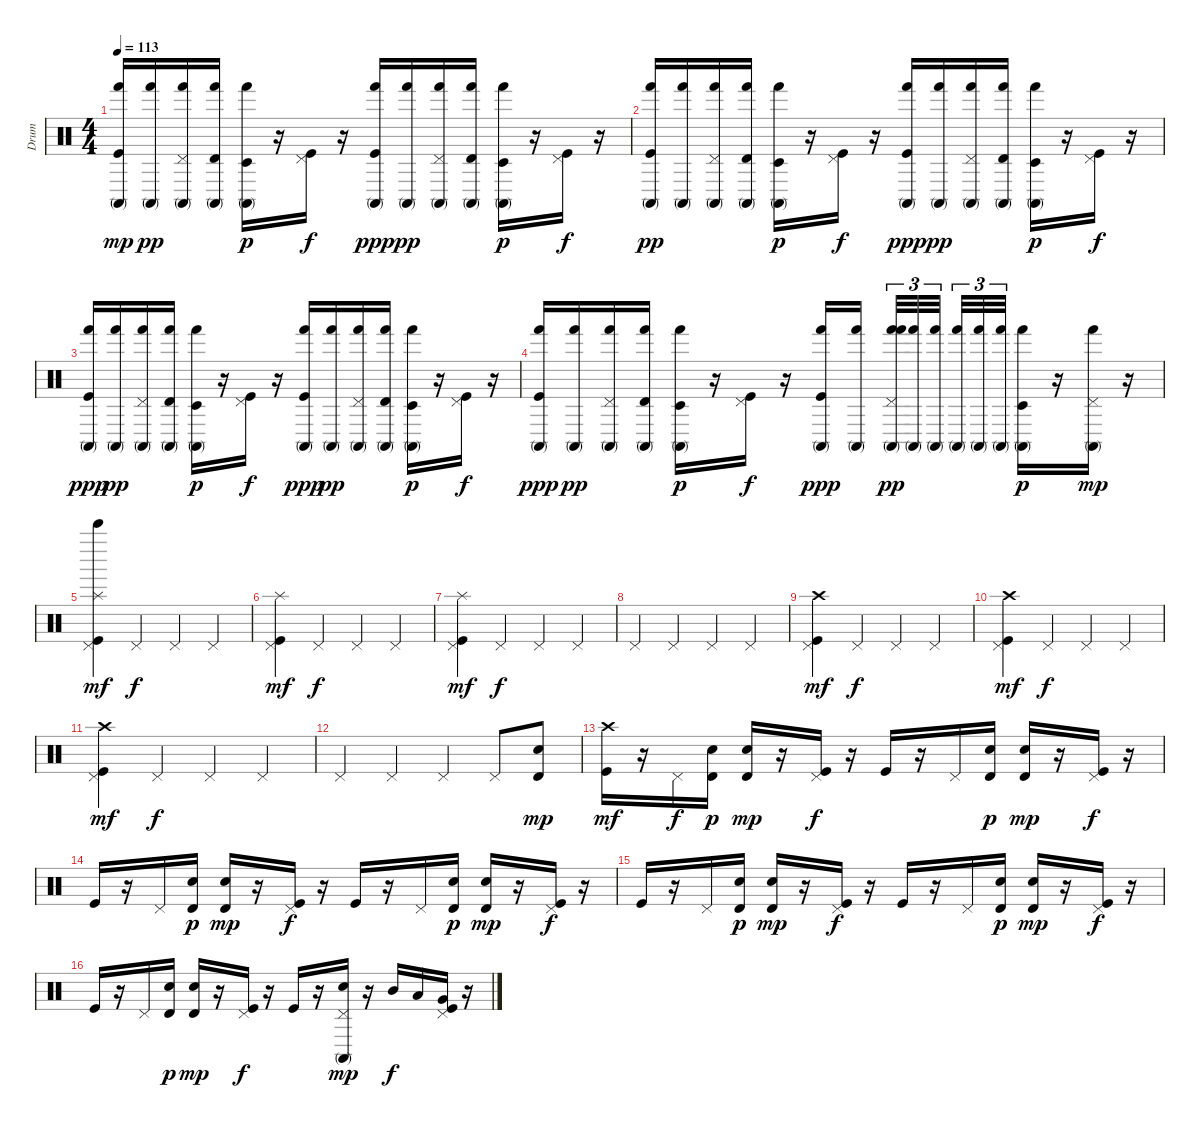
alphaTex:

\track ("Drum" "Drum") {instrument percussion}
\staff {score}
\articulation defaults
\ts (4 4)
\tempo 113
\clef neutral
\ks c
("Hand (hit)" "Conga high (mute)" "Kick (hit)").16{dy mp} ("Hand (hit)" "Conga high (mute)").16{dy pp} ("Hand (hit)" "Conga high (mute)" "Pedal Hi-Hat (hit)").16 ("Hand (hit)" "Conga high (mute)" "Timbale high (hit)").16 ("Hand (hit)" "Conga high (mute)" "Timbale low (hit)").16{dy p} r.16 ("Kick (hit)" "Pedal Hi-Hat (hit)").16{dy f} r.16 ("Hand (hit)" "Conga high (mute)" "Kick (hit)").16{dy ppp} ("Hand (hit)" "Conga high (mute)").16{dy pp} ("Hand (hit)" "Conga high (mute)" "Pedal Hi-Hat (hit)").16 ("Hand (hit)" "Conga high (mute)" "Timbale high (hit)").16 ("Hand (hit)" "Conga high (mute)" "Timbale low (hit)").16{dy p} r.16 ("Kick (hit)" "Pedal Hi-Hat (hit)").16{dy f} r.16 |
("Hand (hit)" "Conga high (mute)" "Kick (hit)").16{dy pp} ("Hand (hit)" "Conga high (mute)").16 ("Hand (hit)" "Conga high (mute)" "Pedal Hi-Hat (hit)").16 ("Hand (hit)" "Conga high (mute)" "Timbale high (hit)").16 ("Hand (hit)" "Conga high (mute)" "Timbale low (hit)").16{dy p} r.16 ("Kick (hit)" "Pedal Hi-Hat (hit)").16{dy f} r.16 ("Hand (hit)" "Conga high (mute)" "Kick (hit)").16{dy ppp} ("Hand (hit)" "Conga high (mute)").16{dy pp} ("Hand (hit)" "Conga high (mute)" "Pedal Hi-Hat (hit)").16 ("Hand (hit)" "Conga high (mute)" "Timbale high (hit)").16 ("Hand (hit)" "Conga high (mute)" "Timbale low (hit)").16{dy p} r.16 ("Kick (hit)" "Pedal Hi-Hat (hit)").16{dy f} r.16 |
("Hand (hit)" "Conga high (mute)" "Kick (hit)").16{dy ppp} ("Hand (hit)" "Conga high (mute)").16{dy pp} ("Hand (hit)" "Conga high (mute)" "Pedal Hi-Hat (hit)").16 ("Hand (hit)" "Conga high (mute)" "Timbale high (hit)").16 ("Hand (hit)" "Conga high (mute)" "Timbale low (hit)").16{dy p} r.16 ("Kick (hit)" "Pedal Hi-Hat (hit)").16{dy f} r.16 ("Hand (hit)" "Conga high (mute)" "Kick (hit)").16{dy ppp} ("Hand (hit)" "Conga high (mute)").16{dy pp} ("Hand (hit)" "Conga high (mute)" "Pedal Hi-Hat (hit)").16 ("Hand (hit)" "Conga high (mute)" "Timbale high (hit)").16 ("Hand (hit)" "Conga high (mute)" "Timbale low (hit)").16{dy p} r.16 ("Kick (hit)" "Pedal Hi-Hat (hit)").16{dy f} r.16 |
("Hand (hit)" "Conga high (mute)" "Kick (hit)").16{dy ppp} ("Hand (hit)" "Conga high (mute)").16{dy pp} ("Hand (hit)" "Conga high (mute)" "Pedal Hi-Hat (hit)").16 ("Hand (hit)" "Conga high (mute)" "Timbale high (hit)").16 ("Hand (hit)" "Conga high (mute)" "Timbale low (hit)").16{dy p} r.16 ("Kick (hit)" "Pedal Hi-Hat (hit)").16{dy f} r.16 ("Hand (hit)" "Conga high (mute)" "Kick (hit)").16{dy ppp} ("Hand (hit)" "Conga high (mute)").16 ("Hand (hit)" "Hand (hit)" "Conga high (mute)" "Pedal Hi-Hat (hit)").32{tu (3 2) dy pp} ("Hand (hit)" "Conga high (mute)").32{tu (3 2)} ("Hand (hit)" "Conga high (mute)").32{tu (3 2)} ("Hand (hit)" "Conga high (mute)").32{tu (3 2)} ("Hand (hit)" "Conga high (mute)").32{tu (3 2)} ("Hand (hit)" "Conga high (mute)").32{tu (3 2)} ("Hand (hit)" "Conga high (mute)" "Timbale low (hit)").16{dy p} r.16 ("Hand (hit)" "Conga high (mute)" "Pedal Hi-Hat (hit)").16{dy mp} r.16 |
("Bell Tree (hit)" "Splash (hit)" "Kick (hit)" "Pedal Hi-Hat (hit)").4{dy mf} "Pedal Hi-Hat (hit)".4{dy f} "Pedal Hi-Hat (hit)".4 "Pedal Hi-Hat (hit)".4 |
("Splash (hit)" "Kick (hit)" "Pedal Hi-Hat (hit)").4{dy mf} "Pedal Hi-Hat (hit)".4{dy f} "Pedal Hi-Hat (hit)".4 "Pedal Hi-Hat (hit)".4 |
("Splash (hit)" "Kick (hit)" "Pedal Hi-Hat (hit)").4{dy mf} "Pedal Hi-Hat (hit)".4{dy f} "Pedal Hi-Hat (hit)".4 "Pedal Hi-Hat (hit)".4 |
"Pedal Hi-Hat (hit)".4 "Pedal Hi-Hat (hit)".4 "Pedal Hi-Hat (hit)".4 "Pedal Hi-Hat (hit)".4 |
("Crash high (hit)" "Kick (hit)" "Pedal Hi-Hat (hit)").4{dy mf} "Pedal Hi-Hat (hit)".4{dy f} "Pedal Hi-Hat (hit)".4 "Pedal Hi-Hat (hit)".4 |
("Crash high (hit)" "Kick (hit)" "Pedal Hi-Hat (hit)").4{dy mf} "Pedal Hi-Hat (hit)".4{dy f} "Pedal Hi-Hat (hit)".4 "Pedal Hi-Hat (hit)".4 |
("Crash high (hit)" "Kick (hit)" "Pedal Hi-Hat (hit)").4{dy mf} "Pedal Hi-Hat (hit)".4{dy f} "Pedal Hi-Hat (hit)".4 "Pedal Hi-Hat (hit)".4 |
"Pedal Hi-Hat (hit)".4 "Pedal Hi-Hat (hit)".4 "Pedal Hi-Hat (hit)".4 "Pedal Hi-Hat (hit)".8 ("Timbale high (hit)" "Electric Snare (hit)").8{dy mp} |
("Crash high (hit)" "Kick (hit)").16{dy mf} r.16 "Pedal Hi-Hat (hit)".16{dy f} ("Electric Snare (hit)" "Timbale high (hit)").16{dy p} ("Electric Snare (hit)" "Timbale high (hit)").16{dy mp} r.16 ("Kick (hit)" "Pedal Hi-Hat (hit)").16{dy f} r.16 "Kick (hit)".16 r.16 "Pedal Hi-Hat (hit)".16 ("Electric Snare (hit)" "Timbale high (hit)").16{dy p} ("Electric Snare (hit)" "Timbale high (hit)").16{dy mp} r.16 ("Kick (hit)" "Pedal Hi-Hat (hit)").16{dy f} r.16 |
"Kick (hit)".16 r.16 "Pedal Hi-Hat (hit)".16 ("Electric Snare (hit)" "Timbale high (hit)").16{dy p} ("Electric Snare (hit)" "Timbale high (hit)").16{dy mp} r.16 ("Kick (hit)" "Pedal Hi-Hat (hit)").16{dy f} r.16 "Kick (hit)".16 r.16 "Pedal Hi-Hat (hit)".16 ("Electric Snare (hit)" "Timbale high (hit)").16{dy p} ("Electric Snare (hit)" "Timbale high (hit)").16{dy mp} r.16 ("Kick (hit)" "Pedal Hi-Hat (hit)").16{dy f} r.16 |
"Kick (hit)".16 r.16 "Pedal Hi-Hat (hit)".16 ("Electric Snare (hit)" "Timbale high (hit)").16{dy p} ("Electric Snare (hit)" "Timbale high (hit)").16{dy mp} r.16 ("Kick (hit)" "Pedal Hi-Hat (hit)").16{dy f} r.16 "Kick (hit)".16 r.16 "Pedal Hi-Hat (hit)".16 ("Electric Snare (hit)" "Timbale high (hit)").16{dy p} ("Electric Snare (hit)" "Timbale high (hit)").16{dy mp} r.16 ("Kick (hit)" "Pedal Hi-Hat (hit)").16{dy f} r.16 |
"Kick (hit)".16 r.16 "Pedal Hi-Hat (hit)".16 ("Electric Snare (hit)" "Timbale high (hit)").16{dy p} ("Electric Snare (hit)" "Timbale high (hit)").16{dy mp} r.16 ("Kick (hit)" "Pedal Hi-Hat (hit)").16{dy f} r.16 "Kick (hit)".16 r.16 ("Electric Snare (hit)" "Conga high (mute)" "Pedal Hi-Hat (hit)").16{dy mp} r.16 "Mid Tom (hit)".16{dy f} "Low Tom (hit)".16 ("Very Low Tom (hit)" "Kick (hit)" "Pedal Hi-Hat (hit)").16 r.16
